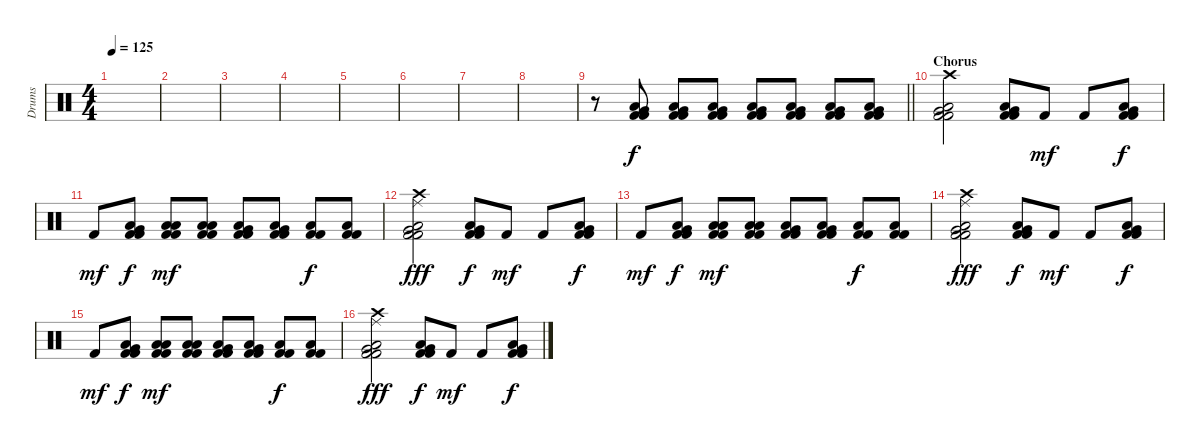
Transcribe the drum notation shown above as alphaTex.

\track ("Drums" "Drums") {instrument percussion}
\staff {score}
\articulation defaults
\ts (4 4)
\tempo 125
\clef neutral
\ks c
|
|
|
|
|
|
|
|
\barLineRight lightlight
r.8 ("Very Low Tom (hit)" "Low Floor Tom (hit)" "Kick (hit) 2" "Kick (hit) 2").8 ("Very Low Tom (hit)" "Low Floor Tom (hit)" "Kick (hit) 2" "Kick (hit) 2").8 ("Very Low Tom (hit)" "Low Floor Tom (hit)" "Kick (hit) 2" "Kick (hit) 2").8 ("Very Low Tom (hit)" "Low Floor Tom (hit)" "Kick (hit) 2" "Kick (hit) 2").8 ("Very Low Tom (hit)" "Low Floor Tom (hit)" "Kick (hit) 2" "Kick (hit) 2").8 ("Very Low Tom (hit)" "Low Floor Tom (hit)" "Kick (hit) 2" "Kick (hit) 2").8 ("Very Low Tom (hit)" "Low Floor Tom (hit)" "Kick (hit) 2" "Kick (hit) 2").8 |
\section ("" "Chorus")
("Crash high (hit)" "Very Low Tom (hit)" "Low Floor Tom (hit)" "Kick (hit) 2" "Kick (hit) 2").2 ("Very Low Tom (hit)" "Low Floor Tom (hit)" "Kick (hit) 2" "Kick (hit) 2").8 "Kick (hit) 2".8{dy mf} "Kick (hit) 2".8 ("Very Low Tom (hit)" "Low Floor Tom (hit)" "Kick (hit) 2" "Kick (hit) 2").8{dy f} |
"Kick (hit) 2".8{dy mf} ("Very Low Tom (hit)" "Low Floor Tom (hit)" "Kick (hit) 2" "Kick (hit) 2").8{dy f} ("Low Tom (hit)" "Low Floor Tom (hit)" "Kick (hit) 2" "Kick (hit) 2").8{dy mf} ("Low Tom (hit)" "Low Floor Tom (hit)" "Kick (hit) 2" "Kick (hit) 2").8 ("Very Low Tom (hit)" "Low Floor Tom (hit)" "Kick (hit) 2" "Kick (hit) 2").8 ("Very Low Tom (hit)" "Low Floor Tom (hit)" "Kick (hit) 2" "Kick (hit) 2").8 ("Low Floor Tom (hit)" "Kick (hit) 2" "Kick (hit) 2").8{dy f} ("Low Floor Tom (hit)" "Kick (hit) 2" "Kick (hit) 2").8 |
("Crash high (hit)" "Ride (middle)" "Very Low Tom (hit)" "Low Floor Tom (hit)" "Kick (hit) 2" "Kick (hit) 2").2{dy fff} ("Very Low Tom (hit)" "Low Floor Tom (hit)" "Kick (hit) 2" "Kick (hit) 2").8{dy f} "Kick (hit) 2".8{dy mf} "Kick (hit) 2".8 ("Very Low Tom (hit)" "Low Floor Tom (hit)" "Kick (hit) 2" "Kick (hit) 2").8{dy f} |
"Kick (hit) 2".8{dy mf} ("Very Low Tom (hit)" "Low Floor Tom (hit)" "Kick (hit) 2" "Kick (hit) 2").8{dy f} ("Low Tom (hit)" "Low Floor Tom (hit)" "Kick (hit) 2" "Kick (hit) 2").8{dy mf} ("Low Tom (hit)" "Low Floor Tom (hit)" "Kick (hit) 2" "Kick (hit) 2").8 ("Very Low Tom (hit)" "Low Floor Tom (hit)" "Kick (hit) 2" "Kick (hit) 2").8 ("Very Low Tom (hit)" "Low Floor Tom (hit)" "Kick (hit) 2" "Kick (hit) 2").8 ("Low Floor Tom (hit)" "Kick (hit) 2" "Kick (hit) 2").8{dy f} ("Low Floor Tom (hit)" "Kick (hit) 2" "Kick (hit) 2").8 |
("Crash high (hit)" "Ride (middle)" "Very Low Tom (hit)" "Low Floor Tom (hit)" "Kick (hit) 2" "Kick (hit) 2").2{dy fff} ("Very Low Tom (hit)" "Low Floor Tom (hit)" "Kick (hit) 2" "Kick (hit) 2").8{dy f} "Kick (hit) 2".8{dy mf} "Kick (hit) 2".8 ("Very Low Tom (hit)" "Low Floor Tom (hit)" "Kick (hit) 2" "Kick (hit) 2").8{dy f} |
"Kick (hit) 2".8{dy mf} ("Very Low Tom (hit)" "Low Floor Tom (hit)" "Kick (hit) 2" "Kick (hit) 2").8{dy f} ("Low Tom (hit)" "Low Floor Tom (hit)" "Kick (hit) 2" "Kick (hit) 2").8{dy mf} ("Low Tom (hit)" "Low Floor Tom (hit)" "Kick (hit) 2" "Kick (hit) 2").8 ("Very Low Tom (hit)" "Low Floor Tom (hit)" "Kick (hit) 2" "Kick (hit) 2").8 ("Very Low Tom (hit)" "Low Floor Tom (hit)" "Kick (hit) 2" "Kick (hit) 2").8 ("Low Floor Tom (hit)" "Kick (hit) 2" "Kick (hit) 2").8{dy f} ("Low Floor Tom (hit)" "Kick (hit) 2" "Kick (hit) 2").8 |
("Crash high (hit)" "Ride (middle)" "Very Low Tom (hit)" "Low Floor Tom (hit)" "Kick (hit) 2" "Kick (hit) 2").2{dy fff} ("Very Low Tom (hit)" "Low Floor Tom (hit)" "Kick (hit) 2" "Kick (hit) 2").8{dy f} "Kick (hit) 2".8{dy mf} "Kick (hit) 2".8 ("Very Low Tom (hit)" "Low Floor Tom (hit)" "Kick (hit) 2" "Kick (hit) 2").8{dy f}
